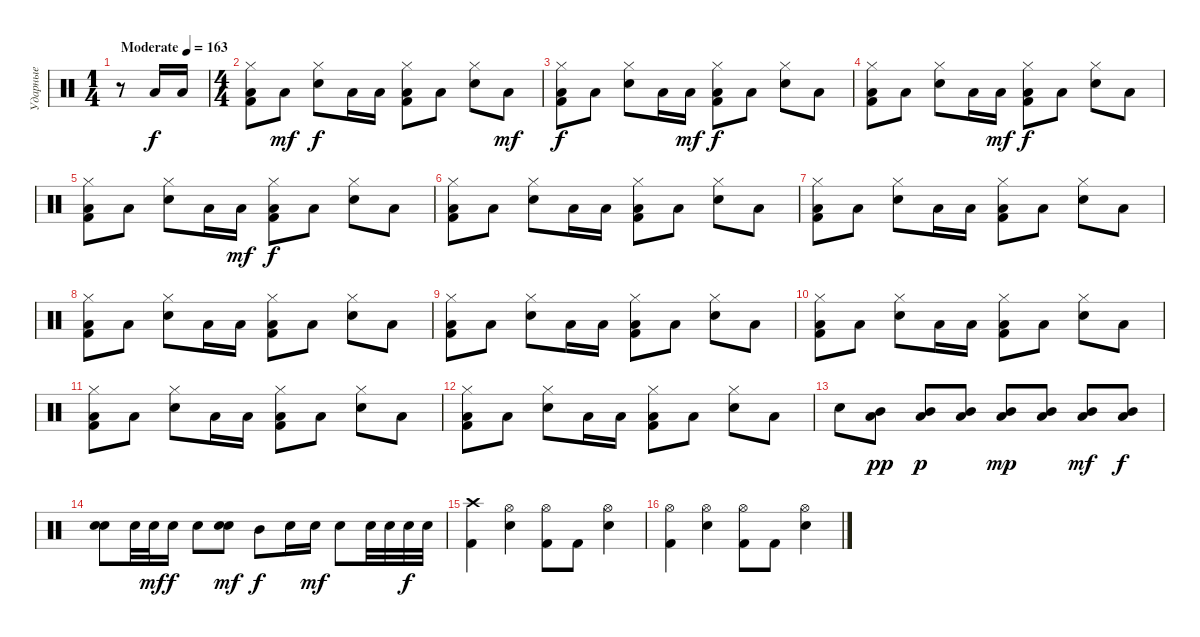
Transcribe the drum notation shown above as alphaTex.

\track ("Ударные" "Ударные") {instrument percussion}
\staff {score}
\articulation defaults
\ts (1 4)
\tempo (163 "Moderate")
\clef neutral
\ks c
r.8{dy f} "Low Tom (hit)".16 "Low Tom (hit)".16 |
\ts (4 4)
("Kick (hit) 2" "Low Tom (hit)" "Hi-Hat (closed)").8 "Low Tom (hit)".8{dy mf} ("Snare (hit) 2" "Hi-Hat (closed)").8{dy f} "Low Tom (hit)".16 "Low Tom (hit)".16 ("Kick (hit) 2" "Low Tom (hit)" "Hi-Hat (closed)").8 "Low Tom (hit)".8 ("Snare (hit) 2" "Hi-Hat (closed)").8 "Low Tom (hit)".8{dy mf} |
("Kick (hit) 2" "Low Tom (hit)" "Hi-Hat (closed)").8{dy f} "Low Tom (hit)".8 ("Snare (hit) 2" "Hi-Hat (closed)").8 "Low Tom (hit)".16 "Low Tom (hit)".16{dy mf} ("Kick (hit) 2" "Low Tom (hit)" "Hi-Hat (closed)").8{dy f} "Low Tom (hit)".8 ("Snare (hit) 2" "Hi-Hat (closed)").8 "Low Tom (hit)".8 |
("Kick (hit) 2" "Low Tom (hit)" "Hi-Hat (closed)").8 "Low Tom (hit)".8 ("Snare (hit) 2" "Hi-Hat (closed)").8 "Low Tom (hit)".16 "Low Tom (hit)".16{dy mf} ("Kick (hit) 2" "Low Tom (hit)" "Hi-Hat (closed)").8{dy f} "Low Tom (hit)".8 ("Snare (hit) 2" "Hi-Hat (closed)").8 "Low Tom (hit)".8 |
("Kick (hit) 2" "Low Tom (hit)" "Hi-Hat (closed)").8 "Low Tom (hit)".8 ("Snare (hit) 2" "Hi-Hat (closed)").8 "Low Tom (hit)".16 "Low Tom (hit)".16{dy mf} ("Kick (hit) 2" "Low Tom (hit)" "Hi-Hat (closed)").8{dy f} "Low Tom (hit)".8 ("Snare (hit) 2" "Hi-Hat (closed)").8 "Low Tom (hit)".8 |
("Kick (hit) 2" "Low Tom (hit)" "Hi-Hat (closed)").8 "Low Tom (hit)".8 ("Snare (hit) 2" "Hi-Hat (closed)").8 "Low Tom (hit)".16 "Low Tom (hit)".16 ("Kick (hit) 2" "Low Tom (hit)" "Hi-Hat (closed)").8 "Low Tom (hit)".8 ("Snare (hit) 2" "Hi-Hat (closed)").8 "Low Tom (hit)".8 |
("Kick (hit) 2" "Low Tom (hit)" "Hi-Hat (closed)").8 "Low Tom (hit)".8 ("Snare (hit) 2" "Hi-Hat (closed)").8 "Low Tom (hit)".16 "Low Tom (hit)".16 ("Kick (hit) 2" "Low Tom (hit)" "Hi-Hat (closed)").8 "Low Tom (hit)".8 ("Snare (hit) 2" "Hi-Hat (closed)").8 "Low Tom (hit)".8 |
("Kick (hit) 2" "Low Tom (hit)" "Hi-Hat (closed)").8 "Low Tom (hit)".8 ("Snare (hit) 2" "Hi-Hat (closed)").8 "Low Tom (hit)".16 "Low Tom (hit)".16 ("Kick (hit) 2" "Low Tom (hit)" "Hi-Hat (closed)").8 "Low Tom (hit)".8 ("Snare (hit) 2" "Hi-Hat (closed)").8 "Low Tom (hit)".8 |
("Kick (hit) 2" "Low Tom (hit)" "Hi-Hat (closed)").8 "Low Tom (hit)".8 ("Snare (hit) 2" "Hi-Hat (closed)").8 "Low Tom (hit)".16 "Low Tom (hit)".16 ("Kick (hit) 2" "Low Tom (hit)" "Hi-Hat (closed)").8 "Low Tom (hit)".8 ("Snare (hit) 2" "Hi-Hat (closed)").8 "Low Tom (hit)".8 |
("Kick (hit) 2" "Low Tom (hit)" "Hi-Hat (closed)").8 "Low Tom (hit)".8 ("Snare (hit) 2" "Hi-Hat (closed)").8 "Low Tom (hit)".16 "Low Tom (hit)".16 ("Kick (hit) 2" "Low Tom (hit)" "Hi-Hat (closed)").8 "Low Tom (hit)".8 ("Snare (hit) 2" "Hi-Hat (closed)").8 "Low Tom (hit)".8 |
("Kick (hit) 2" "Low Tom (hit)" "Hi-Hat (closed)").8 "Low Tom (hit)".8 ("Snare (hit) 2" "Hi-Hat (closed)").8 "Low Tom (hit)".16 "Low Tom (hit)".16 ("Kick (hit) 2" "Low Tom (hit)" "Hi-Hat (closed)").8 "Low Tom (hit)".8 ("Snare (hit) 2" "Hi-Hat (closed)").8 "Low Tom (hit)".8 |
("Kick (hit) 2" "Low Tom (hit)" "Hi-Hat (closed)").8 "Low Tom (hit)".8 ("Snare (hit) 2" "Hi-Hat (closed)").8 "Low Tom (hit)".16 "Low Tom (hit)".16 ("Kick (hit) 2" "Low Tom (hit)" "Hi-Hat (closed)").8 "Low Tom (hit)".8 ("Snare (hit) 2" "Hi-Hat (closed)").8 "Low Tom (hit)".8 |
"Snare (hit) 2".8 ("Low Tom (hit)" "Mid Tom (hit)").8{dy pp} ("Low Tom (hit)" "Mid Tom (hit)").8{dy p} ("Low Tom (hit)" "Mid Tom (hit)").8 ("Low Tom (hit)" "Mid Tom (hit)").8{dy mp} ("Low Tom (hit)" "Mid Tom (hit)").8 ("Low Tom (hit)" "Mid Tom (hit)").8{dy mf} ("Low Tom (hit)" "Mid Tom (hit)").8{dy f} |
("Electric Snare (hit)" "Snare (hit) 2").8 "Electric Snare (hit)".32 "Electric Snare (hit)".32{dy mf} "Electric Snare (hit)".16{dy f} "Electric Snare (hit)".8 ("Electric Snare (hit)" "Snare (hit) 2").8{dy mf} "Mid Tom (hit)".8{dy f} "Electric Snare (hit)".16 "Electric Snare (hit)".16{dy mf} "Electric Snare (hit)".8 "Electric Snare (hit)".32 "Electric Snare (hit)".32 "Electric Snare (hit)".32{dy f} "Electric Snare (hit)".32 |
("Kick (hit) 2" "Crash high (hit)").4 ("Snare (hit) 2" "Hi-Hat (open)").4 ("Kick (hit) 2" "Hi-Hat (open)").8 "Kick (hit) 2".8 ("Snare (hit) 2" "Hi-Hat (open)").4 |
("Kick (hit) 2" "Hi-Hat (open)").4 ("Snare (hit) 2" "Hi-Hat (open)").4 ("Kick (hit) 2" "Hi-Hat (open)").8 "Kick (hit) 2".8 ("Snare (hit) 2" "Hi-Hat (open)").4
